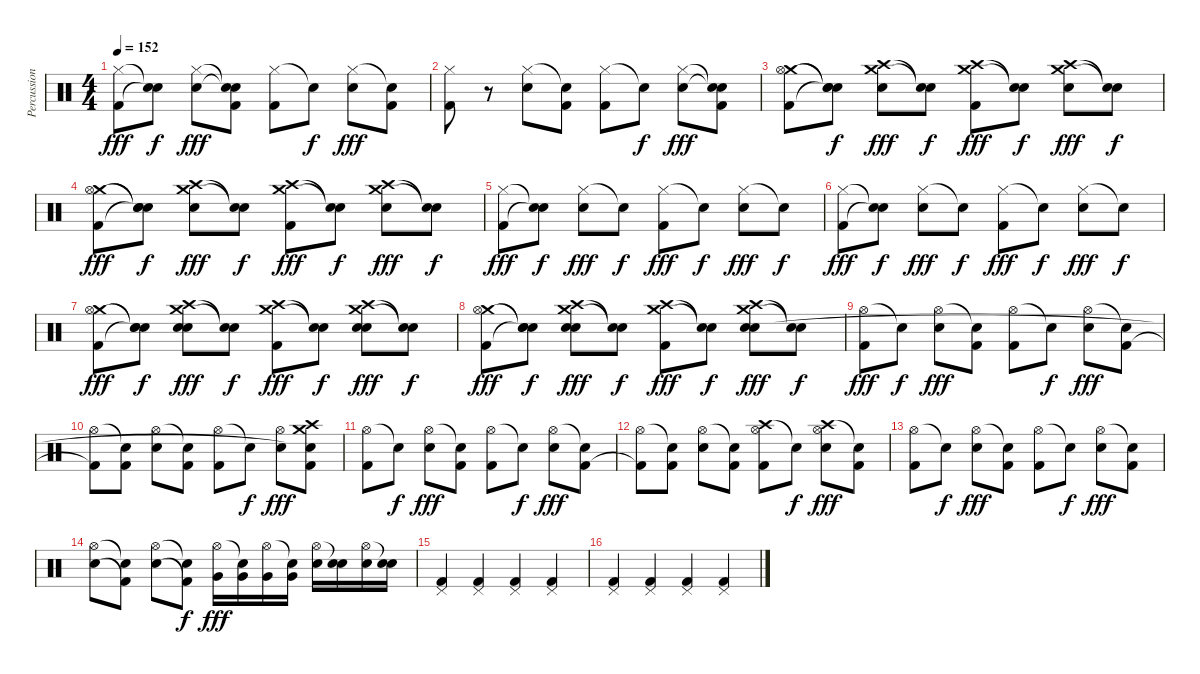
\track ("Percussion" "Percussion") {instrument percussion}
\staff {score}
\articulation defaults
\ts (4 4)
\tempo 152
\clef neutral
\ks c
("Hi-Hat (closed)" "Kick (hit) 2").8{dy fff} ("Snare (hit)"{t} "Snare (hit)"{t}).8{dy f} ("Hi-Hat (closed)" "Electric Snare (hit)").8{dy fff} ("Snare (hit)"{t} "Snare (hit)"{t} "Kick (hit) 2").8 ("Hi-Hat (closed)" "Kick (hit) 2").8 "Snare (hit)"{t}.8{dy f} ("Hi-Hat (closed)" "Electric Snare (hit)").8{dy fff} ("Snare (hit)"{t} "Kick (hit) 2").8 |
("Hi-Hat (closed)" "Kick (hit) 2").8 r.8 ("Hi-Hat (closed)" "Electric Snare (hit)").8 ("Snare (hit)"{t} "Kick (hit) 2").8 ("Hi-Hat (closed)" "Kick (hit) 2").8 "Snare (hit)"{t}.8{dy f} ("Hi-Hat (closed)" "Electric Snare (hit)").8{dy fff} ("Snare (hit)"{t} "Snare (hit)"{t} "Kick (hit) 2").8 |
("Crash medium (hit)" "Hi-Hat (open)" "Kick (hit) 2").8 ("Snare (hit)"{t} "Snare (hit)"{t} "Snare (hit)"{t}).8{dy f} ("Crash medium (hit)" "Crash high (hit)" "Electric Snare (hit)").8{dy fff} ("Snare (hit)"{t} "Snare (hit)"{t}).8{dy f} ("Crash medium (hit)" "Crash high (hit)" "Kick (hit) 2").8{dy fff} ("Snare (hit)"{t} "Snare (hit)"{t}).8{dy f} ("Crash medium (hit)" "Crash high (hit)" "Electric Snare (hit)").8{dy fff} ("Snare (hit)"{t} "Snare (hit)"{t}).8{dy f} |
("Crash medium (hit)" "Hi-Hat (open)" "Kick (hit) 2").8{dy fff} ("Snare (hit)"{t} "Snare (hit)"{t} "Snare (hit)"{t}).8{dy f} ("Crash medium (hit)" "Crash high (hit)" "Electric Snare (hit)").8{dy fff} ("Snare (hit)"{t} "Snare (hit)"{t}).8{dy f} ("Crash medium (hit)" "Crash high (hit)" "Kick (hit) 2").8{dy fff} ("Snare (hit)"{t} "Snare (hit)"{t}).8{dy f} ("Crash medium (hit)" "Crash high (hit)" "Electric Snare (hit)").8{dy fff} ("Snare (hit)"{t} "Snare (hit)"{t}).8{dy f} |
("Hi-Hat (closed)" "Kick (hit) 2").8{dy fff} ("Snare (hit)"{t} "Snare (hit)"{t}).8{dy f} ("Hi-Hat (closed)" "Electric Snare (hit)").8{dy fff} "Snare (hit)"{t}.8{dy f} ("Hi-Hat (closed)" "Kick (hit) 2").8{dy fff} "Snare (hit)"{t}.8{dy f} ("Hi-Hat (closed)" "Electric Snare (hit)").8{dy fff} "Snare (hit)"{t}.8{dy f} |
("Hi-Hat (closed)" "Kick (hit) 2").8{dy fff} ("Snare (hit)"{t} "Snare (hit)"{t}).8{dy f} ("Hi-Hat (closed)" "Electric Snare (hit)").8{dy fff} "Snare (hit)"{t}.8{dy f} ("Hi-Hat (closed)" "Kick (hit) 2").8{dy fff} "Snare (hit)"{t}.8{dy f} ("Hi-Hat (closed)" "Electric Snare (hit)").8{dy fff} "Snare (hit)"{t}.8{dy f} |
("Crash medium (hit)" "Hi-Hat (open)" "Kick (hit) 2").8{dy fff} ("Snare (hit)"{t} "Snare (hit)"{t} "Snare (hit)"{t}).8{dy f} ("Crash medium (hit)" "Crash high (hit)" "Hand Clap (hit)" "Electric Snare (hit)").8{dy fff} ("Snare (hit)"{t} "Snare (hit)"{t}).8{dy f} ("Crash medium (hit)" "Crash high (hit)" "Kick (hit) 2").8{dy fff} ("Snare (hit)"{t} "Snare (hit)"{t}).8{dy f} ("Crash medium (hit)" "Crash high (hit)" "Hand Clap (hit)" "Electric Snare (hit)").8{dy fff} ("Snare (hit)"{t} "Snare (hit)"{t}).8{dy f} |
("Crash medium (hit)" "Hi-Hat (open)" "Kick (hit) 2").8{dy fff} ("Snare (hit)"{t} "Snare (hit)"{t} "Snare (hit)"{t}).8{dy f} ("Crash medium (hit)" "Crash high (hit)" "Hand Clap (hit)" "Electric Snare (hit)").8{dy fff} ("Snare (hit)"{t} "Snare (hit)"{t}).8{dy f} ("Crash medium (hit)" "Crash high (hit)" "Kick (hit) 2").8{dy fff} ("Snare (hit)"{t} "Snare (hit)"{t}).8{dy f} ("Crash medium (hit)" "Crash high (hit)" "Hand Clap (hit)" "Electric Snare (hit)").8{dy fff} ("Snare (hit)"{t} "Snare (hit)"{t}).8{dy f} |
("Hi-Hat (open)" "Kick (hit) 2").8{dy fff} "Snare (hit)"{t}.8{dy f} ("Hi-Hat (open)" "Electric Snare (hit)").8{dy fff} ("Snare (hit)"{t} "Kick (hit) 2").8 ("Hi-Hat (open)" "Kick (hit) 2").8 "Snare (hit)"{t}.8{dy f} ("Hi-Hat (open)" "Electric Snare (hit)").8{dy fff} ("Snare (hit)"{t} "Kick (hit) 2").8 |
("Hi-Hat (open)" "Kick (hit) 2"{t}).8 ("Snare (hit)"{t} "Kick (hit) 2").8 ("Hi-Hat (open)" "Electric Snare (hit)").8 ("Snare (hit)"{t} "Kick (hit) 2").8 ("Hi-Hat (open)" "Kick (hit) 2").8 "Snare (hit)"{t}.8{dy f} ("Hi-Hat (open)" "Electric Snare (hit)").8{dy fff} ("Crash medium (hit)" "Crash high (hit)" "Snare (hit)"{t} "Kick (hit) 2").8 |
("Hi-Hat (open)" "Kick (hit) 2").8 "Snare (hit)"{t}.8{dy f} ("Hi-Hat (open)" "Electric Snare (hit)").8{dy fff} ("Snare (hit)"{t} "Kick (hit) 2").8 ("Hi-Hat (open)" "Kick (hit) 2").8 "Snare (hit)"{t}.8{dy f} ("Hi-Hat (open)" "Electric Snare (hit)").8{dy fff} ("Snare (hit)"{t} "Kick (hit) 2").8 |
("Hi-Hat (open)" "Kick (hit) 2"{t}).8 ("Snare (hit)"{t} "Kick (hit) 2").8 ("Hi-Hat (open)" "Electric Snare (hit)").8 ("Snare (hit)"{t} "Kick (hit) 2").8 ("Crash high (hit)" "Hi-Hat (open)" "Kick (hit) 2").8 "Snare (hit)"{t}.8{dy f} ("Crash high (hit)" "Hi-Hat (open)" "Electric Snare (hit)").8{dy fff} ("Snare (hit)"{t} "Kick (hit) 2").8 |
("Hi-Hat (open)" "Kick (hit) 2").8 "Snare (hit)"{t}.8{dy f} ("Hi-Hat (open)" "Electric Snare (hit)").8{dy fff} ("Snare (hit)"{t} "Kick (hit) 2").8 ("Hi-Hat (open)" "Kick (hit) 2").8 "Snare (hit)"{t}.8{dy f} ("Hi-Hat (open)" "Electric Snare (hit)").8{dy fff} ("Snare (hit)"{t} "Kick (hit) 2").8 |
("Hi-Hat (open)" "Electric Snare (hit)").8 ("Snare (hit)"{t} "Kick (hit) 2"{t}).8 ("Hi-Hat (open)" "Electric Snare (hit)").8 ("Snare (hit)"{t} "Kick (hit) 2"{t}).8{dy f} ("Hi-Hat (open)" "Very Low Tom (hit)").16{dy fff} ("Snare (hit)"{t} "Very Low Tom (hit)").16 ("Hi-Hat (open)" "Very Low Tom (hit)").16 ("Snare (hit)"{t} "Very Low Tom (hit)").16 ("Hi-Hat (open)" "Electric Snare (hit)").16 ("Snare (hit)"{t} "Electric Snare (hit)").16 ("Hi-Hat (open)" "Electric Snare (hit)").16 ("Snare (hit)"{t} "Electric Snare (hit)").16 |
("Pedal Hi-Hat (hit)" "Kick (hit) 2").4 ("Pedal Hi-Hat (hit)" "Kick (hit) 2").4 ("Pedal Hi-Hat (hit)" "Kick (hit) 2").4 ("Pedal Hi-Hat (hit)" "Kick (hit) 2").4 |
("Pedal Hi-Hat (hit)" "Kick (hit) 2").4 ("Pedal Hi-Hat (hit)" "Kick (hit) 2").4 ("Pedal Hi-Hat (hit)" "Kick (hit) 2").4 ("Pedal Hi-Hat (hit)" "Kick (hit) 2").4
